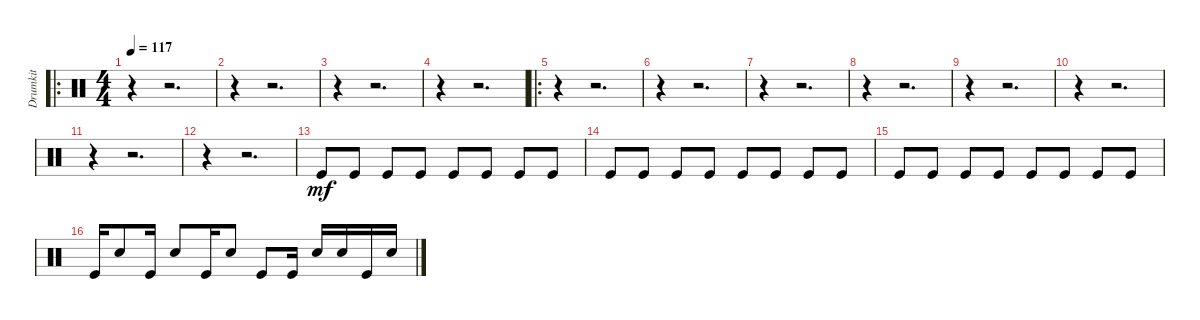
\track ("Drumkit" "Drumkit") {instrument percussion}
\staff {score}
\articulation defaults
\ro
\ts (4 4)
\tempo 117
\clef neutral
\ks c
r.4{dy mf} r.2{d} |
r.4 r.2{d} |
r.4 r.2{d} |
r.4 r.2{d} |
\ro
r.4 r.2{d} |
r.4 r.2{d} |
r.4 r.2{d} |
r.4 r.2{d} |
r.4 r.2{d} |
r.4 r.2{d} |
r.4 r.2{d} |
r.4 r.2{d} |
"Kick (hit)".8 "Kick (hit)".8 "Kick (hit)".8 "Kick (hit)".8 "Kick (hit)".8 "Kick (hit)".8 "Kick (hit)".8 "Kick (hit)".8 |
"Kick (hit)".8 "Kick (hit)".8 "Kick (hit)".8 "Kick (hit)".8 "Kick (hit)".8 "Kick (hit)".8 "Kick (hit)".8 "Kick (hit)".8 |
"Kick (hit)".8 "Kick (hit)".8 "Kick (hit)".8 "Kick (hit)".8 "Kick (hit)".8 "Kick (hit)".8 "Kick (hit)".8 "Kick (hit)".8 |
"Kick (hit)".16 "Snare (hit) 2".8 "Kick (hit)".16 "Snare (hit) 2".8 "Kick (hit)".16 "Snare (hit) 2".8 "Kick (hit)".8 "Kick (hit)".16 "Snare (hit) 2".16 "Snare (hit) 2".16 "Kick (hit)".16 "Snare (hit) 2".16
